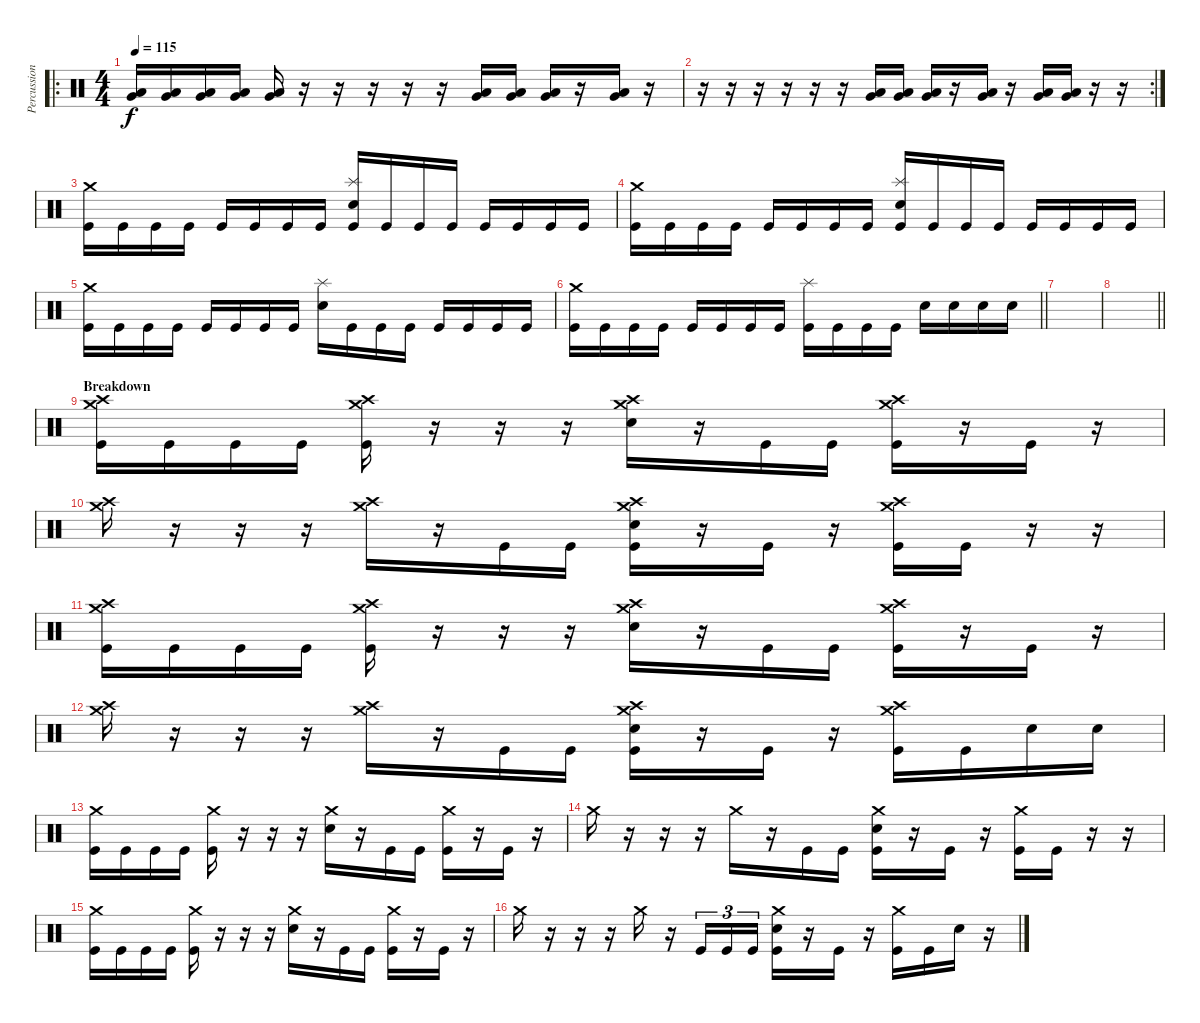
\track ("Percussion (Approx.)" "Percussion") {instrument percussion}
\staff {score}
\articulation defaults
\ro
\ts (4 4)
\tempo 115
\clef neutral
\ks c
("Low Floor Tom (hit)" "Very Low Tom (hit)").16{dy f} ("Low Floor Tom (hit)" "Very Low Tom (hit)").16 ("Low Floor Tom (hit)" "Very Low Tom (hit)").16 ("Low Floor Tom (hit)" "Very Low Tom (hit)").16 ("Low Floor Tom (hit)" "Very Low Tom (hit)").16 r.16 r.16 r.16 r.16 r.16 ("Low Floor Tom (hit)" "Very Low Tom (hit)").16 ("Low Floor Tom (hit)" "Very Low Tom (hit)").16 ("Low Floor Tom (hit)" "Very Low Tom (hit)").16 r.16 ("Low Floor Tom (hit)" "Very Low Tom (hit)").16 r.16 |
\rc 2
r.16 r.16 r.16 r.16 r.16 r.16 ("Low Floor Tom (hit)" "Very Low Tom (hit)").16 ("Low Floor Tom (hit)" "Very Low Tom (hit)").16 ("Low Floor Tom (hit)" "Very Low Tom (hit)").16 r.16 ("Low Floor Tom (hit)" "Very Low Tom (hit)").16 r.16 ("Low Floor Tom (hit)" "Very Low Tom (hit)").16 ("Low Floor Tom (hit)" "Very Low Tom (hit)").16 r.16 r.16 |
("Crash medium (hit)" "Kick (hit)").16 "Kick (hit)".16 "Kick (hit)".16 "Kick (hit)".16 "Kick (hit)".16 "Kick (hit)".16 "Kick (hit)".16 "Kick (hit)".16 ("Splash (hit)" "Electric Snare (hit)" "Kick (hit)").16 "Kick (hit)".16 "Kick (hit)".16 "Kick (hit)".16 "Kick (hit)".16 "Kick (hit)".16 "Kick (hit)".16 "Kick (hit)".16 |
("Crash medium (hit)" "Kick (hit)").16 "Kick (hit)".16 "Kick (hit)".16 "Kick (hit)".16 "Kick (hit)".16 "Kick (hit)".16 "Kick (hit)".16 "Kick (hit)".16 ("Splash (hit)" "Electric Snare (hit)" "Kick (hit)").16 "Kick (hit)".16 "Kick (hit)".16 "Kick (hit)".16 "Kick (hit)".16 "Kick (hit)".16 "Kick (hit)".16 "Kick (hit)".16 |
("Crash medium (hit)" "Kick (hit)").16 "Kick (hit)".16 "Kick (hit)".16 "Kick (hit)".16 "Kick (hit)".16 "Kick (hit)".16 "Kick (hit)".16 "Kick (hit)".16 ("Splash (hit)" "Electric Snare (hit)").16 "Kick (hit)".16 "Kick (hit)".16 "Kick (hit)".16 "Kick (hit)".16 "Kick (hit)".16 "Kick (hit)".16 "Kick (hit)".16 |
\barLineRight lightlight
("Crash medium (hit)" "Kick (hit)").16 "Kick (hit)".16 "Kick (hit)".16 "Kick (hit)".16 "Kick (hit)".16 "Kick (hit)".16 "Kick (hit)".16 "Kick (hit)".16 ("Splash (hit)" "Kick (hit)").16 "Kick (hit)".16 "Kick (hit)".16 "Kick (hit)".16 "Electric Snare (hit)".16 "Electric Snare (hit)".16 "Electric Snare (hit)".16 "Electric Snare (hit)".16 |
\section ("" "")
|
\barLineRight lightlight
|
\section ("" "Breakdown")
("Crash medium (hit)" "Crash high (hit)" "Kick (hit)").16 "Kick (hit)".16 "Kick (hit)".16 "Kick (hit)".16 ("Crash medium (hit)" "Crash high (hit)" "Kick (hit)").16 r.16 r.16 r.16 ("Crash medium (hit)" "Crash high (hit)" "Electric Snare (hit)").16 r.16 "Kick (hit)".16 "Kick (hit)".16 ("Crash medium (hit)" "Crash high (hit)" "Kick (hit)").16 r.16 "Kick (hit)".16 r.16 |
("Crash medium (hit)" "Crash high (hit)").16 r.16 r.16 r.16 ("Crash medium (hit)" "Crash high (hit)").16 r.16 "Kick (hit)".16 "Kick (hit)".16 ("Crash medium (hit)" "Crash high (hit)" "Electric Snare (hit)" "Kick (hit)").16 r.16 "Kick (hit)".16 r.16 ("Crash medium (hit)" "Crash high (hit)" "Kick (hit)").16 "Kick (hit)".16 r.16 r.16 |
("Crash medium (hit)" "Crash high (hit)" "Kick (hit)").16 "Kick (hit)".16 "Kick (hit)".16 "Kick (hit)".16 ("Crash medium (hit)" "Crash high (hit)" "Kick (hit)").16 r.16 r.16 r.16 ("Crash medium (hit)" "Crash high (hit)" "Electric Snare (hit)").16 r.16 "Kick (hit)".16 "Kick (hit)".16 ("Crash medium (hit)" "Crash high (hit)" "Kick (hit)").16 r.16 "Kick (hit)".16 r.16 |
("Crash medium (hit)" "Crash high (hit)").16 r.16 r.16 r.16 ("Crash medium (hit)" "Crash high (hit)").16 r.16 "Kick (hit)".16 "Kick (hit)".16 ("Crash medium (hit)" "Crash high (hit)" "Electric Snare (hit)" "Kick (hit)").16 r.16 "Kick (hit)".16 r.16 ("Crash medium (hit)" "Crash high (hit)" "Kick (hit)").16 "Kick (hit)".16 "Electric Snare (hit)".16 "Electric Snare (hit)".16 |
("Crash medium (hit)" "Kick (hit)").16 "Kick (hit)".16 "Kick (hit)".16 "Kick (hit)".16 ("Crash medium (hit)" "Kick (hit)").16 r.16 r.16 r.16 ("Crash medium (hit)" "Electric Snare (hit)").16 r.16 "Kick (hit)".16 "Kick (hit)".16 ("Crash medium (hit)" "Kick (hit)").16 r.16 "Kick (hit)".16 r.16 |
"Crash medium (hit)".16 r.16 r.16 r.16 "Crash medium (hit)".16 r.16 "Kick (hit)".16 "Kick (hit)".16 ("Crash medium (hit)" "Electric Snare (hit)" "Kick (hit)").16 r.16 "Kick (hit)".16 r.16 ("Crash medium (hit)" "Kick (hit)").16 "Kick (hit)".16 r.16 r.16 |
("Crash medium (hit)" "Kick (hit)").16 "Kick (hit)".16 "Kick (hit)".16 "Kick (hit)".16 ("Crash medium (hit)" "Kick (hit)").16 r.16 r.16 r.16 ("Crash medium (hit)" "Electric Snare (hit)").16 r.16 "Kick (hit)".16 "Kick (hit)".16 ("Crash medium (hit)" "Kick (hit)").16 r.16 "Kick (hit)".16 r.16 |
"Crash medium (hit)".16 r.16 r.16 r.16 "Crash medium (hit)".16 r.16 "Kick (hit)".16{tu (3 2)} "Kick (hit)".16{tu (3 2)} "Kick (hit)".16{tu (3 2)} ("Crash medium (hit)" "Electric Snare (hit)" "Kick (hit)").16 r.16 "Kick (hit)".16 r.16 ("Crash medium (hit)" "Kick (hit)").16 "Kick (hit)".16 "Electric Snare (hit)".16 r.16
